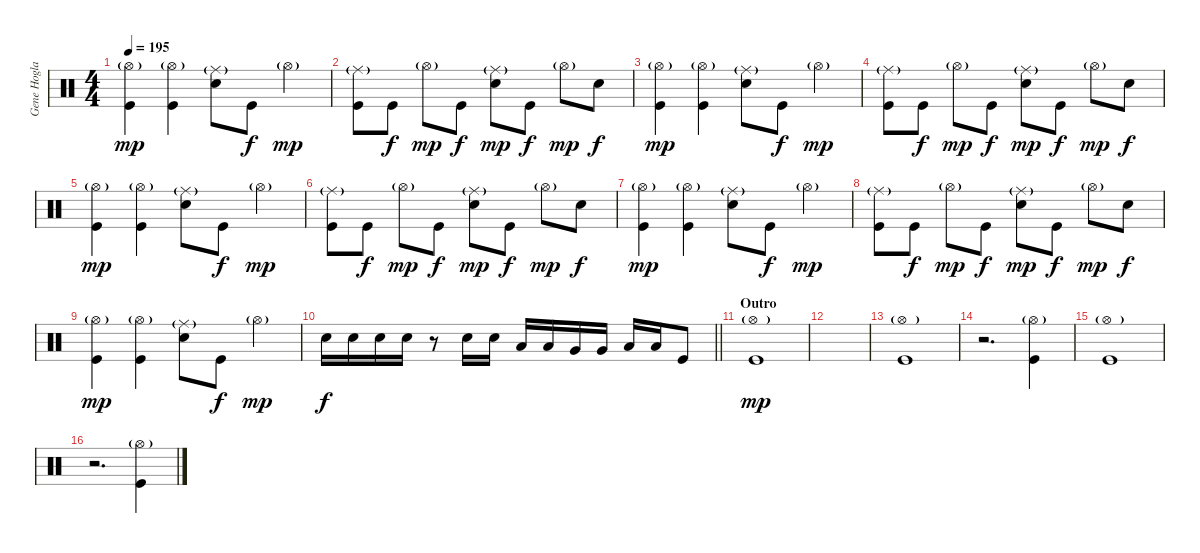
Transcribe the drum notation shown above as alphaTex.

\track ("Gene Hoglan" "Gene Hogla") {instrument percussion}
\staff {score}
\articulation defaults
\ts (4 4)
\tempo 195
\clef neutral
\ks c
("Hi-Hat (open)"{g} "Kick (hit)").4{dy mp} ("Hi-Hat (open)"{g} "Kick (hit)").4 ("Ride (middle)"{g} "Electric Snare (hit)").8 "Kick (hit)".8{dy f} "Hi-Hat (open)"{g}.4{dy mp} |
("Ride (middle)"{g} "Kick (hit)").8 "Kick (hit)".8{dy f} "Hi-Hat (open)"{g}.8{dy mp} "Kick (hit)".8{dy f} ("Ride (middle)"{g} "Electric Snare (hit)").8{dy mp} "Kick (hit)".8{dy f} "Hi-Hat (open)"{g}.8{dy mp} "Electric Snare (hit)".8{dy f} |
("Hi-Hat (open)"{g} "Kick (hit)").4{dy mp} ("Hi-Hat (open)"{g} "Kick (hit)").4 ("Ride (middle)"{g} "Electric Snare (hit)").8 "Kick (hit)".8{dy f} "Hi-Hat (open)"{g}.4{dy mp} |
("Ride (middle)"{g} "Kick (hit)").8 "Kick (hit)".8{dy f} "Hi-Hat (open)"{g}.8{dy mp} "Kick (hit)".8{dy f} ("Ride (middle)"{g} "Electric Snare (hit)").8{dy mp} "Kick (hit)".8{dy f} "Hi-Hat (open)"{g}.8{dy mp} "Electric Snare (hit)".8{dy f} |
("Hi-Hat (open)"{g} "Kick (hit)").4{dy mp} ("Hi-Hat (open)"{g} "Kick (hit)").4 ("Ride (middle)"{g} "Electric Snare (hit)").8 "Kick (hit)".8{dy f} "Hi-Hat (open)"{g}.4{dy mp} |
("Ride (middle)"{g} "Kick (hit)").8 "Kick (hit)".8{dy f} "Hi-Hat (open)"{g}.8{dy mp} "Kick (hit)".8{dy f} ("Ride (middle)"{g} "Electric Snare (hit)").8{dy mp} "Kick (hit)".8{dy f} "Hi-Hat (open)"{g}.8{dy mp} "Electric Snare (hit)".8{dy f} |
("Hi-Hat (open)"{g} "Kick (hit)").4{dy mp} ("Hi-Hat (open)"{g} "Kick (hit)").4 ("Ride (middle)"{g} "Electric Snare (hit)").8 "Kick (hit)".8{dy f} "Hi-Hat (open)"{g}.4{dy mp} |
("Ride (middle)"{g} "Kick (hit)").8 "Kick (hit)".8{dy f} "Hi-Hat (open)"{g}.8{dy mp} "Kick (hit)".8{dy f} ("Ride (middle)"{g} "Electric Snare (hit)").8{dy mp} "Kick (hit)".8{dy f} "Hi-Hat (open)"{g}.8{dy mp} "Electric Snare (hit)".8{dy f} |
("Hi-Hat (open)"{g} "Kick (hit)").4{dy mp} ("Hi-Hat (open)"{g} "Kick (hit)").4 ("Ride (middle)"{g} "Electric Snare (hit)").8 "Kick (hit)".8{dy f} "Hi-Hat (open)"{g}.4{dy mp} |
\barLineRight lightlight "Electric Snare (hit)".16{dy f} "Electric Snare (hit)".16 "Electric Snare (hit)".16 "Electric Snare (hit)".16
r.8 "Electric Snare (hit)".16 "Electric Snare (hit)".16 "Low Tom (hit)".16 "Low Tom (hit)".16 "Very Low Tom (hit)".16 "Very Low Tom (hit)".16 "Low Floor Tom (hit)".16 "Low Floor Tom (hit)".16 "Kick (hit)".8 |
\section ("" "Outro")
("Hi-Hat (open)"{g} "Kick (hit)").1{dy mp} |
|
("Hi-Hat (open)"{g} "Kick (hit)").1 |
r.2{d} ("Hi-Hat (open)"{g} "Kick (hit)").4 |
("Hi-Hat (open)"{g} "Kick (hit)").1 |
r.2{d} ("Hi-Hat (open)"{g} "Kick (hit)").4
